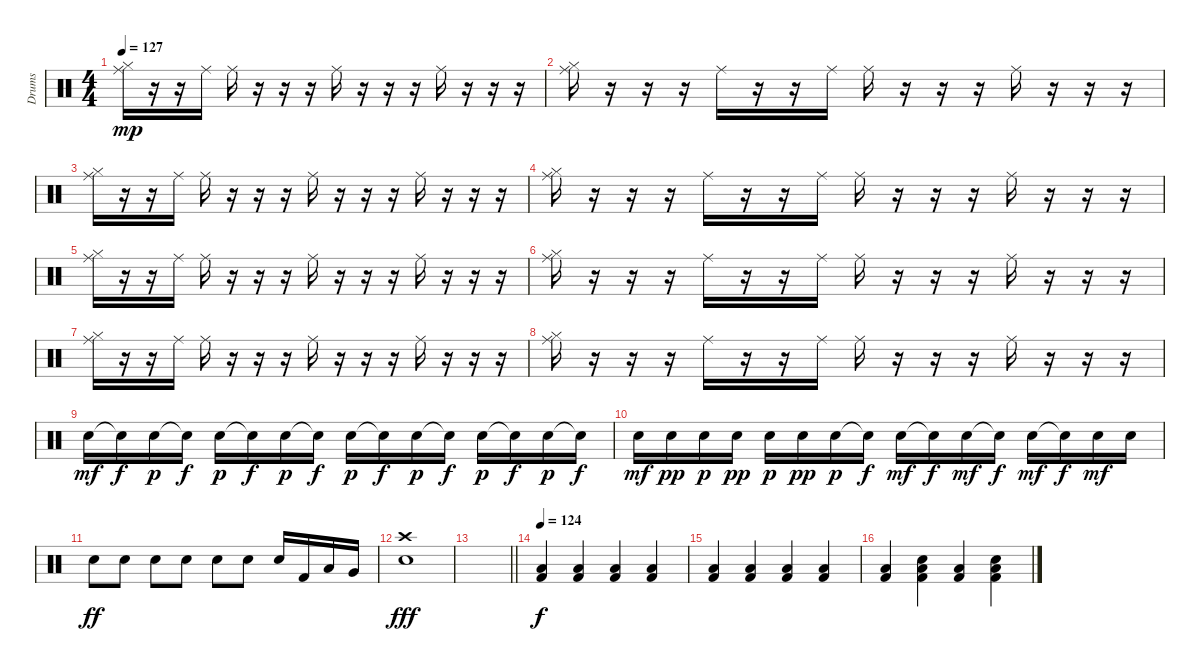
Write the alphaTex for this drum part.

\track ("Drums" "Drums") {instrument percussion}
\staff {score}
\articulation defaults
\ts (4 4)
\tempo 127
\clef neutral
\ks c
("Ride (middle)" "Hi-Hat (closed)").16{dy mp} r.16 r.16 "Ride (middle)".16 "Ride (middle)".16 r.16 r.16 r.16 "Ride (middle)".16 r.16 r.16 r.16 "Ride (middle)".16 r.16 r.16 r.16 |
("Ride (middle)" "Hi-Hat (closed)").16 r.16 r.16 r.16 "Ride (middle)".16 r.16 r.16 "Ride (middle)".16 "Ride (middle)".16 r.16 r.16 r.16 "Ride (middle)".16 r.16 r.16 r.16 |
("Ride (middle)" "Hi-Hat (closed)").16 r.16 r.16 "Ride (middle)".16 "Ride (middle)".16 r.16 r.16 r.16 "Ride (middle)".16 r.16 r.16 r.16 "Ride (middle)".16 r.16 r.16 r.16 |
("Ride (middle)" "Hi-Hat (closed)").16 r.16 r.16 r.16 "Ride (middle)".16 r.16 r.16 "Ride (middle)".16 "Ride (middle)".16 r.16 r.16 r.16 "Ride (middle)".16 r.16 r.16 r.16 |
("Ride (middle)" "Hi-Hat (closed)").16 r.16 r.16 "Ride (middle)".16 "Ride (middle)".16 r.16 r.16 r.16 "Ride (middle)".16 r.16 r.16 r.16 "Ride (middle)".16 r.16 r.16 r.16 |
("Ride (middle)" "Hi-Hat (closed)").16 r.16 r.16 r.16 "Ride (middle)".16 r.16 r.16 "Ride (middle)".16 "Ride (middle)".16 r.16 r.16 r.16 "Ride (middle)".16 r.16 r.16 r.16 |
("Ride (middle)" "Hi-Hat (closed)").16 r.16 r.16 "Ride (middle)".16 "Ride (middle)".16 r.16 r.16 r.16 "Ride (middle)".16 r.16 r.16 r.16 "Ride (middle)".16 r.16 r.16 r.16 |
("Ride (middle)" "Hi-Hat (closed)").16 r.16 r.16 r.16 "Ride (middle)".16 r.16 r.16 "Ride (middle)".16 "Ride (middle)".16 r.16 r.16 r.16 "Ride (middle)".16 r.16 r.16 r.16 |
"Electric Snare (hit)".16{dy mf} "Snare (hit)"{t}.16{dy f} "Electric Snare (hit)".16{dy p} "Electric Snare (hit)"{t}.16{dy f} "Electric Snare (hit)".16{dy p} "Snare (hit)"{t}.16{dy f} "Electric Snare (hit)".16{dy p} "Snare (hit)"{t}.16{dy f} "Electric Snare (hit)".16{dy p} "Snare (hit)"{t}.16{dy f} "Electric Snare (hit)".16{dy p} "Snare (hit)"{t}.16{dy f} "Electric Snare (hit)".16{dy p} "Snare (hit)"{t}.16{dy f} "Electric Snare (hit)".16{dy p} "Electric Snare (hit)"{t}.16{dy f} |
"Electric Snare (hit)".16{dy mf} "Electric Snare (hit)".16{dy pp} "Electric Snare (hit)".16{dy p} "Electric Snare (hit)".16{dy pp} "Electric Snare (hit)".16{dy p} "Electric Snare (hit)".16{dy pp} "Electric Snare (hit)".16{dy p} "Snare (hit)"{t}.16{dy f} "Electric Snare (hit)".16{dy mf} "Snare (hit)"{t}.16{dy f} "Electric Snare (hit)".16{dy mf} "Snare (hit)"{t}.16{dy f} "Electric Snare (hit)".16{dy mf} "Snare (hit)"{t}.16{dy f} "Electric Snare (hit)".16{dy mf} "Electric Snare (hit)".16 |
"Electric Snare (hit)".8{dy ff} "Electric Snare (hit)".8 "Electric Snare (hit)".8 "Electric Snare (hit)".8 "Electric Snare (hit)".8 "Electric Snare (hit)".8 "Electric Snare (hit)".16 "Kick (hit) 2".16 "Low Tom (hit)".16 "Very Low Tom (hit)".16 |
("Crash high (hit)" "Electric Snare (hit)").1{dy fff} |
\barLineRight lightlight
|
\tempo 124
("Low Floor Tom (hit)" "Kick (hit) 2").4{dy f} ("Low Floor Tom (hit)" "Kick (hit) 2").4 ("Low Floor Tom (hit)" "Kick (hit) 2").4 ("Low Floor Tom (hit)" "Kick (hit) 2").4 |
("Low Floor Tom (hit)" "Kick (hit) 2").4 ("Low Floor Tom (hit)" "Kick (hit) 2").4 ("Low Floor Tom (hit)" "Kick (hit) 2").4 ("Low Floor Tom (hit)" "Kick (hit) 2").4 |
("Low Floor Tom (hit)" "Kick (hit) 2").4 ("Low Floor Tom (hit)" "Snare (hit) 2" "Kick (hit) 2").4 ("Low Floor Tom (hit)" "Kick (hit) 2").4 ("Low Floor Tom (hit)" "Snare (hit) 2" "Kick (hit) 2").4
